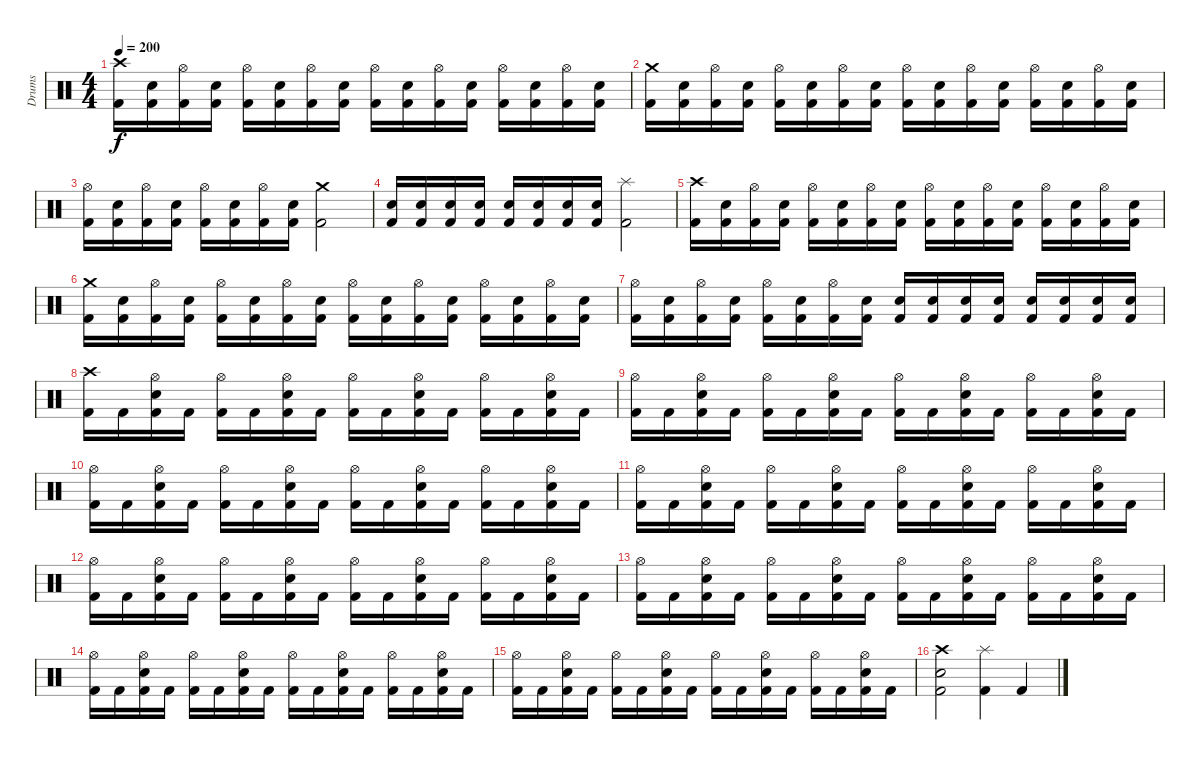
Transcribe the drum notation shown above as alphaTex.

\track ("Drums" "Drums") {instrument percussion}
\staff {score}
\articulation defaults
\ts (4 4)
\tempo 200
\clef neutral
\ks c
("Crash high (hit)" "Kick (hit) 2").16{dy f} ("Snare (hit) 2" "Kick (hit) 2").16 ("Hi-Hat (open)" "Kick (hit) 2").16 ("Snare (hit) 2" "Kick (hit) 2").16 ("Hi-Hat (open)" "Kick (hit) 2").16 ("Snare (hit) 2" "Kick (hit) 2").16 ("Hi-Hat (open)" "Kick (hit) 2").16 ("Snare (hit) 2" "Kick (hit) 2").16 ("Hi-Hat (open)" "Kick (hit) 2").16 ("Snare (hit) 2" "Kick (hit) 2").16 ("Hi-Hat (open)" "Kick (hit) 2").16 ("Snare (hit) 2" "Kick (hit) 2").16 ("Hi-Hat (open)" "Kick (hit) 2").16 ("Snare (hit) 2" "Kick (hit) 2").16 ("Hi-Hat (open)" "Kick (hit) 2").16 ("Snare (hit) 2" "Kick (hit) 2").16 |
("Crash medium (hit)" "Kick (hit) 2").16 ("Snare (hit) 2" "Kick (hit) 2").16 ("Hi-Hat (open)" "Kick (hit) 2").16 ("Snare (hit) 2" "Kick (hit) 2").16 ("Hi-Hat (open)" "Kick (hit) 2").16 ("Snare (hit) 2" "Kick (hit) 2").16 ("Hi-Hat (open)" "Kick (hit) 2").16 ("Snare (hit) 2" "Kick (hit) 2").16 ("Hi-Hat (open)" "Kick (hit) 2").16 ("Snare (hit) 2" "Kick (hit) 2").16 ("Hi-Hat (open)" "Kick (hit) 2").16 ("Snare (hit) 2" "Kick (hit) 2").16 ("Hi-Hat (open)" "Kick (hit) 2").16 ("Snare (hit) 2" "Kick (hit) 2").16 ("Hi-Hat (open)" "Kick (hit) 2").16 ("Snare (hit) 2" "Kick (hit) 2").16 |
("Hi-Hat (open)" "Kick (hit) 2").16 ("Snare (hit) 2" "Kick (hit) 2").16 ("Hi-Hat (open)" "Kick (hit) 2").16 ("Snare (hit) 2" "Kick (hit) 2").16 ("Hi-Hat (open)" "Kick (hit) 2").16 ("Snare (hit) 2" "Kick (hit) 2").16 ("Hi-Hat (open)" "Kick (hit) 2").16 ("Snare (hit) 2" "Kick (hit) 2").16 ("Crash medium (hit)" "Kick (hit) 2").2 |
("Snare (hit) 2" "Kick (hit) 2").16 ("Snare (hit) 2" "Kick (hit) 2").16 ("Snare (hit) 2" "Kick (hit) 2").16 ("Snare (hit) 2" "Kick (hit) 2").16 ("Snare (hit) 2" "Kick (hit) 2").16 ("Snare (hit) 2" "Kick (hit) 2").16 ("Snare (hit) 2" "Kick (hit) 2").16 ("Snare (hit) 2" "Kick (hit) 2").16 ("Splash (hit)" "Kick (hit) 2").2 |
("Crash high (hit)" "Kick (hit) 2").16 ("Snare (hit) 2" "Kick (hit) 2").16 ("Hi-Hat (open)" "Kick (hit) 2").16 ("Snare (hit) 2" "Kick (hit) 2").16 ("Hi-Hat (open)" "Kick (hit) 2").16 ("Snare (hit) 2" "Kick (hit) 2").16 ("Hi-Hat (open)" "Kick (hit) 2").16 ("Snare (hit) 2" "Kick (hit) 2").16 ("Hi-Hat (open)" "Kick (hit) 2").16 ("Snare (hit) 2" "Kick (hit) 2").16 ("Hi-Hat (open)" "Kick (hit) 2").16 ("Snare (hit) 2" "Kick (hit) 2").16 ("Hi-Hat (open)" "Kick (hit) 2").16 ("Snare (hit) 2" "Kick (hit) 2").16 ("Hi-Hat (open)" "Kick (hit) 2").16 ("Snare (hit) 2" "Kick (hit) 2").16 |
("Crash medium (hit)" "Kick (hit) 2").16 ("Snare (hit) 2" "Kick (hit) 2").16 ("Hi-Hat (open)" "Kick (hit) 2").16 ("Snare (hit) 2" "Kick (hit) 2").16 ("Hi-Hat (open)" "Kick (hit) 2").16 ("Snare (hit) 2" "Kick (hit) 2").16 ("Hi-Hat (open)" "Kick (hit) 2").16 ("Snare (hit) 2" "Kick (hit) 2").16 ("Hi-Hat (open)" "Kick (hit) 2").16 ("Snare (hit) 2" "Kick (hit) 2").16 ("Hi-Hat (open)" "Kick (hit) 2").16 ("Snare (hit) 2" "Kick (hit) 2").16 ("Hi-Hat (open)" "Kick (hit) 2").16 ("Snare (hit) 2" "Kick (hit) 2").16 ("Hi-Hat (open)" "Kick (hit) 2").16 ("Snare (hit) 2" "Kick (hit) 2").16 |
("Hi-Hat (open)" "Kick (hit) 2").16 ("Snare (hit) 2" "Kick (hit) 2").16 ("Hi-Hat (open)" "Kick (hit) 2").16 ("Snare (hit) 2" "Kick (hit) 2").16 ("Hi-Hat (open)" "Kick (hit) 2").16 ("Snare (hit) 2" "Kick (hit) 2").16 ("Hi-Hat (open)" "Kick (hit) 2").16 ("Snare (hit) 2" "Kick (hit) 2").16 ("Snare (hit) 2" "Kick (hit) 2").16 ("Snare (hit) 2" "Kick (hit) 2").16 ("Snare (hit) 2" "Kick (hit) 2").16 ("Snare (hit) 2" "Kick (hit) 2").16 ("Snare (hit) 2" "Kick (hit) 2").16 ("Snare (hit) 2" "Kick (hit) 2").16 ("Snare (hit) 2" "Kick (hit) 2").16 ("Snare (hit) 2" "Kick (hit) 2").16 |
("Crash high (hit)" "Kick (hit) 2").16 "Kick (hit) 2".16 ("Hi-Hat (open)" "Snare (hit) 2" "Kick (hit) 2").16 "Kick (hit) 2".16 ("Hi-Hat (open)" "Kick (hit) 2").16 "Kick (hit) 2".16 ("Hi-Hat (open)" "Snare (hit) 2" "Kick (hit) 2").16 "Kick (hit) 2".16 ("Hi-Hat (open)" "Kick (hit) 2").16 "Kick (hit) 2".16 ("Hi-Hat (open)" "Snare (hit) 2" "Kick (hit) 2").16 "Kick (hit) 2".16 ("Hi-Hat (open)" "Kick (hit) 2").16 "Kick (hit) 2".16 ("Hi-Hat (open)" "Snare (hit) 2" "Kick (hit) 2").16 "Kick (hit) 2".16 |
("Hi-Hat (open)" "Kick (hit) 2").16 "Kick (hit) 2".16 ("Hi-Hat (open)" "Snare (hit) 2" "Kick (hit) 2").16 "Kick (hit) 2".16 ("Hi-Hat (open)" "Kick (hit) 2").16 "Kick (hit) 2".16 ("Hi-Hat (open)" "Snare (hit) 2" "Kick (hit) 2").16 "Kick (hit) 2".16 ("Hi-Hat (open)" "Kick (hit) 2").16 "Kick (hit) 2".16 ("Hi-Hat (open)" "Snare (hit) 2" "Kick (hit) 2").16 "Kick (hit) 2".16 ("Hi-Hat (open)" "Kick (hit) 2").16 "Kick (hit) 2".16 ("Hi-Hat (open)" "Snare (hit) 2" "Kick (hit) 2").16 "Kick (hit) 2".16 |
("Hi-Hat (open)" "Kick (hit) 2").16 "Kick (hit) 2".16 ("Hi-Hat (open)" "Snare (hit) 2" "Kick (hit) 2").16 "Kick (hit) 2".16 ("Hi-Hat (open)" "Kick (hit) 2").16 "Kick (hit) 2".16 ("Hi-Hat (open)" "Snare (hit) 2" "Kick (hit) 2").16 "Kick (hit) 2".16 ("Hi-Hat (open)" "Kick (hit) 2").16 "Kick (hit) 2".16 ("Hi-Hat (open)" "Snare (hit) 2" "Kick (hit) 2").16 "Kick (hit) 2".16 ("Hi-Hat (open)" "Kick (hit) 2").16 "Kick (hit) 2".16 ("Hi-Hat (open)" "Snare (hit) 2" "Kick (hit) 2").16 "Kick (hit) 2".16 |
("Hi-Hat (open)" "Kick (hit) 2").16 "Kick (hit) 2".16 ("Hi-Hat (open)" "Snare (hit) 2" "Kick (hit) 2").16 "Kick (hit) 2".16 ("Hi-Hat (open)" "Kick (hit) 2").16 "Kick (hit) 2".16 ("Hi-Hat (open)" "Snare (hit) 2" "Kick (hit) 2").16 "Kick (hit) 2".16 ("Hi-Hat (open)" "Kick (hit) 2").16 "Kick (hit) 2".16 ("Hi-Hat (open)" "Snare (hit) 2" "Kick (hit) 2").16 "Kick (hit) 2".16 ("Hi-Hat (open)" "Kick (hit) 2").16 "Kick (hit) 2".16 ("Hi-Hat (open)" "Snare (hit) 2" "Kick (hit) 2").16 "Kick (hit) 2".16 |
("Hi-Hat (open)" "Kick (hit) 2").16 "Kick (hit) 2".16 ("Hi-Hat (open)" "Snare (hit) 2" "Kick (hit) 2").16 "Kick (hit) 2".16 ("Hi-Hat (open)" "Kick (hit) 2").16 "Kick (hit) 2".16 ("Hi-Hat (open)" "Snare (hit) 2" "Kick (hit) 2").16 "Kick (hit) 2".16 ("Hi-Hat (open)" "Kick (hit) 2").16 "Kick (hit) 2".16 ("Hi-Hat (open)" "Snare (hit) 2" "Kick (hit) 2").16 "Kick (hit) 2".16 ("Hi-Hat (open)" "Kick (hit) 2").16 "Kick (hit) 2".16 ("Hi-Hat (open)" "Snare (hit) 2" "Kick (hit) 2").16 "Kick (hit) 2".16 |
("Hi-Hat (open)" "Kick (hit) 2").16 "Kick (hit) 2".16 ("Hi-Hat (open)" "Snare (hit) 2" "Kick (hit) 2").16 "Kick (hit) 2".16 ("Hi-Hat (open)" "Kick (hit) 2").16 "Kick (hit) 2".16 ("Hi-Hat (open)" "Snare (hit) 2" "Kick (hit) 2").16 "Kick (hit) 2".16 ("Hi-Hat (open)" "Kick (hit) 2").16 "Kick (hit) 2".16 ("Hi-Hat (open)" "Snare (hit) 2" "Kick (hit) 2").16 "Kick (hit) 2".16 ("Hi-Hat (open)" "Kick (hit) 2").16 "Kick (hit) 2".16 ("Hi-Hat (open)" "Snare (hit) 2" "Kick (hit) 2").16 "Kick (hit) 2".16 |
("Hi-Hat (open)" "Kick (hit) 2").16 "Kick (hit) 2".16 ("Hi-Hat (open)" "Snare (hit) 2" "Kick (hit) 2").16 "Kick (hit) 2".16 ("Hi-Hat (open)" "Kick (hit) 2").16 "Kick (hit) 2".16 ("Hi-Hat (open)" "Snare (hit) 2" "Kick (hit) 2").16 "Kick (hit) 2".16 ("Hi-Hat (open)" "Kick (hit) 2").16 "Kick (hit) 2".16 ("Hi-Hat (open)" "Snare (hit) 2" "Kick (hit) 2").16 "Kick (hit) 2".16 ("Hi-Hat (open)" "Kick (hit) 2").16 "Kick (hit) 2".16 ("Hi-Hat (open)" "Snare (hit) 2" "Kick (hit) 2").16 "Kick (hit) 2".16 |
("Hi-Hat (open)" "Kick (hit) 2").16 "Kick (hit) 2".16 ("Hi-Hat (open)" "Snare (hit) 2" "Kick (hit) 2").16 "Kick (hit) 2".16 ("Hi-Hat (open)" "Kick (hit) 2").16 "Kick (hit) 2".16 ("Hi-Hat (open)" "Snare (hit) 2" "Kick (hit) 2").16 "Kick (hit) 2".16 ("Hi-Hat (open)" "Kick (hit) 2").16 "Kick (hit) 2".16 ("Hi-Hat (open)" "Snare (hit) 2" "Kick (hit) 2").16 "Kick (hit) 2".16 ("Hi-Hat (open)" "Kick (hit) 2").16 "Kick (hit) 2".16 ("Hi-Hat (open)" "Snare (hit) 2" "Kick (hit) 2").16 "Kick (hit) 2".16 |
("Crash high (hit)" "Snare (hit) 2" "Kick (hit) 2").2 ("Splash (hit)" "Kick (hit) 2").4 "Kick (hit) 2".4
